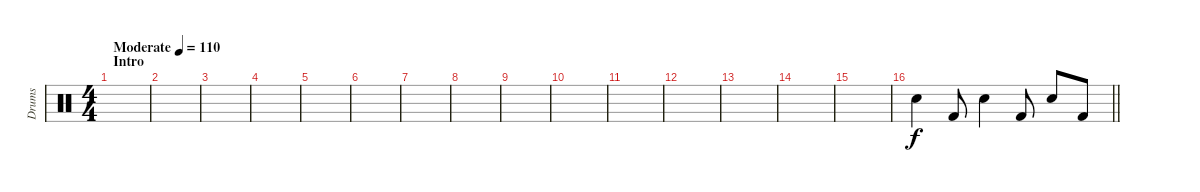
\track ("Drums" "Drums") {instrument percussion}
\staff {score}
\articulation defaults
\ts (4 4)
\section ("" "Intro")
\tempo (110 "Moderate")
\clef neutral
\ks c
|
|
|
|
|
|
|
|
|
|
|
|
|
|
|
\barLineRight lightlight "Electric Snare (hit)".4 "Kick (hit) 2".8 "Electric Snare (hit)".4 "Kick (hit) 2".8 "Electric Snare (hit)".8 "Kick (hit) 2".8
